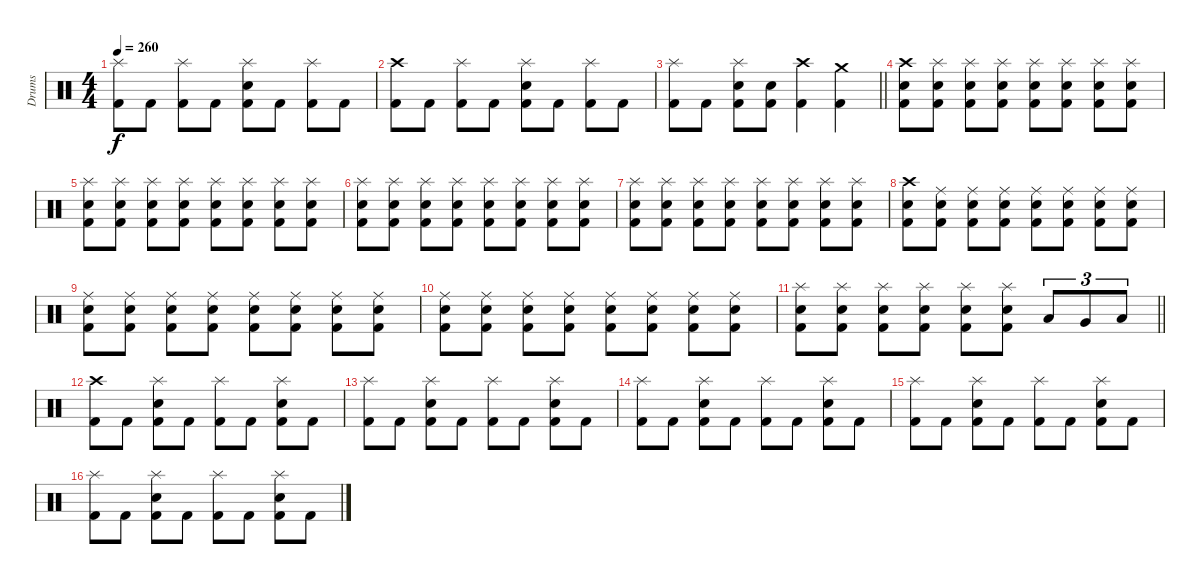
\track ("Drums" "Drums") {instrument percussion}
\staff {score}
\articulation defaults
\ts (4 4)
\tempo 260
\clef neutral
\ks c
("Splash (hit)" "Kick (hit) 2").8{dy f} "Kick (hit) 2".8 ("Splash (hit)" "Kick (hit) 2").8 "Kick (hit) 2".8 ("Splash (hit)" "Electric Snare (hit)" "Kick (hit) 2").8 "Kick (hit) 2".8 ("Splash (hit)" "Kick (hit) 2").8 "Kick (hit) 2".8 |
("Crash high (hit)" "Kick (hit) 2").8 "Kick (hit) 2".8 ("Splash (hit)" "Kick (hit) 2").8 "Kick (hit) 2".8 ("Splash (hit)" "Electric Snare (hit)" "Kick (hit) 2").8 "Kick (hit) 2".8 ("Splash (hit)" "Kick (hit) 2").8 "Kick (hit) 2".8 |
\barLineRight lightlight
("Splash (hit)" "Kick (hit) 2").8 "Kick (hit) 2".8 ("Splash (hit)" "Electric Snare (hit)" "Kick (hit) 2").8 ("Electric Snare (hit)" "Kick (hit) 2").8 ("Crash high (hit)" "Kick (hit) 2").4 ("Crash medium (hit)" "Kick (hit) 2").4 |
("Crash high (hit)" "Electric Snare (hit)" "Kick (hit) 2").8 ("Splash (hit)" "Electric Snare (hit)" "Kick (hit) 2").8 ("Splash (hit)" "Electric Snare (hit)" "Kick (hit) 2").8 ("Splash (hit)" "Electric Snare (hit)" "Kick (hit) 2").8 ("Splash (hit)" "Electric Snare (hit)" "Kick (hit) 2").8 ("Splash (hit)" "Electric Snare (hit)" "Kick (hit) 2").8 ("Splash (hit)" "Electric Snare (hit)" "Kick (hit) 2").8 ("Splash (hit)" "Electric Snare (hit)" "Kick (hit) 2").8 |
("Splash (hit)" "Electric Snare (hit)" "Kick (hit) 2").8 ("Splash (hit)" "Electric Snare (hit)" "Kick (hit) 2").8 ("Splash (hit)" "Electric Snare (hit)" "Kick (hit) 2").8 ("Splash (hit)" "Electric Snare (hit)" "Kick (hit) 2").8 ("Splash (hit)" "Electric Snare (hit)" "Kick (hit) 2").8 ("Splash (hit)" "Electric Snare (hit)" "Kick (hit) 2").8 ("Splash (hit)" "Electric Snare (hit)" "Kick (hit) 2").8 ("Splash (hit)" "Electric Snare (hit)" "Kick (hit) 2").8 |
("Splash (hit)" "Electric Snare (hit)" "Kick (hit) 2").8 ("Splash (hit)" "Electric Snare (hit)" "Kick (hit) 2").8 ("Splash (hit)" "Electric Snare (hit)" "Kick (hit) 2").8 ("Splash (hit)" "Electric Snare (hit)" "Kick (hit) 2").8 ("Splash (hit)" "Electric Snare (hit)" "Kick (hit) 2").8 ("Splash (hit)" "Electric Snare (hit)" "Kick (hit) 2").8 ("Splash (hit)" "Electric Snare (hit)" "Kick (hit) 2").8 ("Splash (hit)" "Electric Snare (hit)" "Kick (hit) 2").8 |
("Splash (hit)" "Electric Snare (hit)" "Kick (hit) 2").8 ("Splash (hit)" "Electric Snare (hit)" "Kick (hit) 2").8 ("Splash (hit)" "Electric Snare (hit)" "Kick (hit) 2").8 ("Splash (hit)" "Electric Snare (hit)" "Kick (hit) 2").8 ("Splash (hit)" "Electric Snare (hit)" "Kick (hit) 2").8 ("Splash (hit)" "Electric Snare (hit)" "Kick (hit) 2").8 ("Splash (hit)" "Electric Snare (hit)" "Kick (hit) 2").8 ("Splash (hit)" "Electric Snare (hit)" "Kick (hit) 2").8 |
("Crash high (hit)" "Electric Snare (hit)" "Kick (hit) 2").8 ("Ride (middle)" "Electric Snare (hit)" "Kick (hit) 2").8 ("Ride (middle)" "Electric Snare (hit)" "Kick (hit) 2").8 ("Ride (middle)" "Electric Snare (hit)" "Kick (hit) 2").8 ("Ride (middle)" "Electric Snare (hit)" "Kick (hit) 2").8 ("Ride (middle)" "Electric Snare (hit)" "Kick (hit) 2").8 ("Ride (middle)" "Electric Snare (hit)" "Kick (hit) 2").8 ("Ride (middle)" "Electric Snare (hit)" "Kick (hit) 2").8 |
("Ride (middle)" "Electric Snare (hit)" "Kick (hit) 2").8 ("Ride (middle)" "Electric Snare (hit)" "Kick (hit) 2").8 ("Ride (middle)" "Electric Snare (hit)" "Kick (hit) 2").8 ("Ride (middle)" "Electric Snare (hit)" "Kick (hit) 2").8 ("Ride (middle)" "Electric Snare (hit)" "Kick (hit) 2").8 ("Ride (middle)" "Electric Snare (hit)" "Kick (hit) 2").8 ("Ride (middle)" "Electric Snare (hit)" "Kick (hit) 2").8 ("Ride (middle)" "Electric Snare (hit)" "Kick (hit) 2").8 |
("Ride (middle)" "Electric Snare (hit)" "Kick (hit) 2").8 ("Ride (middle)" "Electric Snare (hit)" "Kick (hit) 2").8 ("Ride (middle)" "Electric Snare (hit)" "Kick (hit) 2").8 ("Ride (middle)" "Electric Snare (hit)" "Kick (hit) 2").8 ("Ride (middle)" "Electric Snare (hit)" "Kick (hit) 2").8 ("Ride (middle)" "Electric Snare (hit)" "Kick (hit) 2").8 ("Ride (middle)" "Electric Snare (hit)" "Kick (hit) 2").8 ("Ride (middle)" "Electric Snare (hit)" "Kick (hit) 2").8 |
\barLineRight lightlight
("Splash (hit)" "Electric Snare (hit)" "Kick (hit) 2").8 ("Splash (hit)" "Electric Snare (hit)" "Kick (hit) 2").8 ("Splash (hit)" "Electric Snare (hit)" "Kick (hit) 2").8 ("Splash (hit)" "Electric Snare (hit)" "Kick (hit) 2").8 ("Splash (hit)" "Electric Snare (hit)" "Kick (hit) 2").8 ("Splash (hit)" "Electric Snare (hit)" "Kick (hit) 2").8 "Low Tom (hit)".8{tu (3 2)} "Very Low Tom (hit)".8{tu (3 2)} "Low Tom (hit)".8{tu (3 2)} |
("Crash high (hit)" "Kick (hit) 2").8 "Kick (hit) 2".8 ("Splash (hit)" "Electric Snare (hit)" "Kick (hit) 2").8 "Kick (hit) 2".8 ("Splash (hit)" "Kick (hit) 2").8 "Kick (hit) 2".8 ("Splash (hit)" "Electric Snare (hit)" "Kick (hit) 2").8 "Kick (hit) 2".8 |
("Splash (hit)" "Kick (hit) 2").8 "Kick (hit) 2".8 ("Splash (hit)" "Electric Snare (hit)" "Kick (hit) 2").8 "Kick (hit) 2".8 ("Splash (hit)" "Kick (hit) 2").8 "Kick (hit) 2".8 ("Splash (hit)" "Electric Snare (hit)" "Kick (hit) 2").8 "Kick (hit) 2".8 |
("Splash (hit)" "Kick (hit) 2").8 "Kick (hit) 2".8 ("Splash (hit)" "Electric Snare (hit)" "Kick (hit) 2").8 "Kick (hit) 2".8 ("Splash (hit)" "Kick (hit) 2").8 "Kick (hit) 2".8 ("Splash (hit)" "Electric Snare (hit)" "Kick (hit) 2").8 "Kick (hit) 2".8 |
("Splash (hit)" "Kick (hit) 2").8 "Kick (hit) 2".8 ("Splash (hit)" "Electric Snare (hit)" "Kick (hit) 2").8 "Kick (hit) 2".8 ("Splash (hit)" "Kick (hit) 2").8 "Kick (hit) 2".8 ("Splash (hit)" "Electric Snare (hit)" "Kick (hit) 2").8 "Kick (hit) 2".8 |
("Splash (hit)" "Kick (hit) 2").8 "Kick (hit) 2".8 ("Splash (hit)" "Electric Snare (hit)" "Kick (hit) 2").8 "Kick (hit) 2".8 ("Splash (hit)" "Kick (hit) 2").8 "Kick (hit) 2".8 ("Splash (hit)" "Electric Snare (hit)" "Kick (hit) 2").8 "Kick (hit) 2".8
